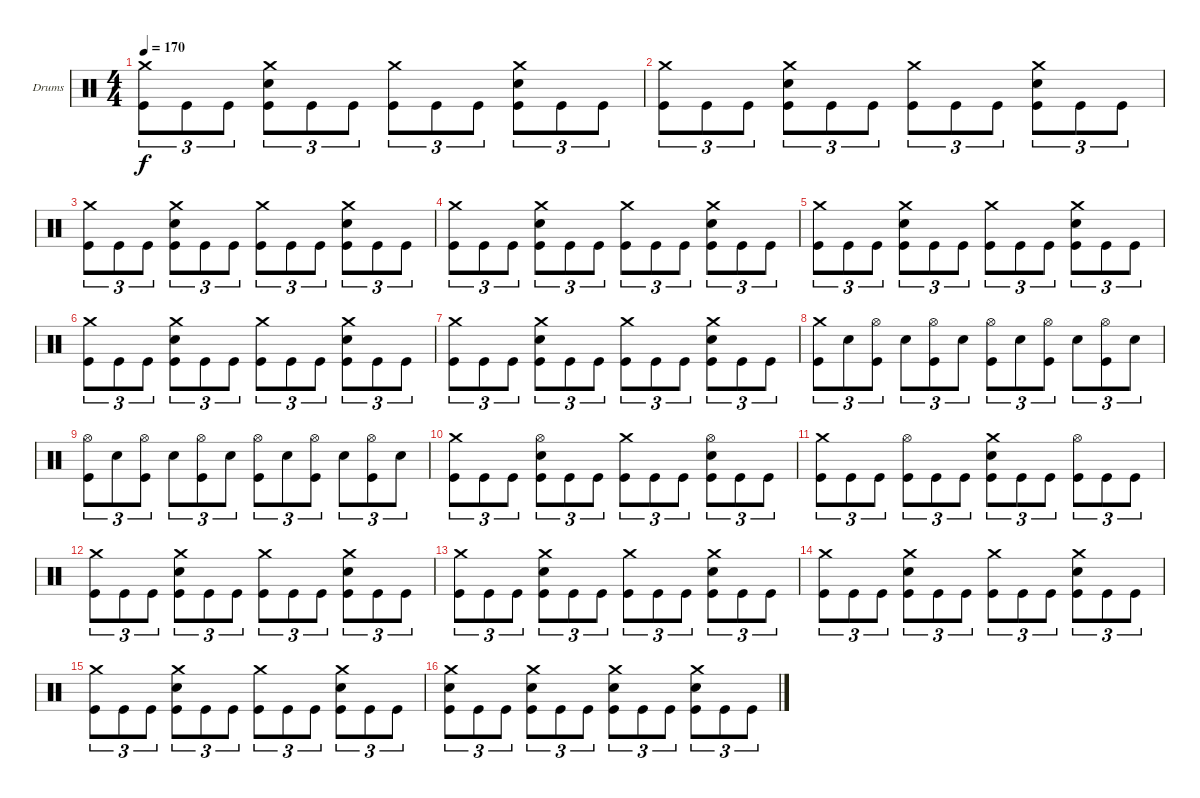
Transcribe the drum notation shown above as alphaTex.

\bracketExtendMode groupsimilarinstruments
\firstSystemTrackNameOrientation horizontal
\otherSystemsTrackNameOrientation horizontal
\track ("Drumkit" "Drums") {instrument percussion}
\staff {score}
\articulation defaults
\ts (4 4)
\tempo 170
\clef neutral
\ks c
("Crash medium (hit)" "Kick (hit)").8{tu (3 2) dy f} "Kick (hit)".8{tu (3 2)} "Kick (hit)".8{tu (3 2)} ("Crash medium (hit)" "Snare (hit) 2" "Kick (hit)").8{tu (3 2)} "Kick (hit)".8{tu (3 2)} "Kick (hit)".8{tu (3 2)} ("Crash medium (hit)" "Kick (hit)").8{tu (3 2)} "Kick (hit)".8{tu (3 2)} "Kick (hit)".8{tu (3 2)} ("Crash medium (hit)" "Snare (hit) 2" "Kick (hit)").8{tu (3 2)} "Kick (hit)".8{tu (3 2)} "Kick (hit)".8{tu (3 2)} |
("Crash medium (hit)" "Kick (hit)").8{tu (3 2)} "Kick (hit)".8{tu (3 2)} "Kick (hit)".8{tu (3 2)} ("Crash medium (hit)" "Snare (hit) 2" "Kick (hit)").8{tu (3 2)} "Kick (hit)".8{tu (3 2)} "Kick (hit)".8{tu (3 2)} ("Crash medium (hit)" "Kick (hit)").8{tu (3 2)} "Kick (hit)".8{tu (3 2)} "Kick (hit)".8{tu (3 2)} ("Crash medium (hit)" "Snare (hit) 2" "Kick (hit)").8{tu (3 2)} "Kick (hit)".8{tu (3 2)} "Kick (hit)".8{tu (3 2)} |
("Crash medium (hit)" "Kick (hit)").8{tu (3 2)} "Kick (hit)".8{tu (3 2)} "Kick (hit)".8{tu (3 2)} ("Crash medium (hit)" "Snare (hit) 2" "Kick (hit)").8{tu (3 2)} "Kick (hit)".8{tu (3 2)} "Kick (hit)".8{tu (3 2)} ("Crash medium (hit)" "Kick (hit)").8{tu (3 2)} "Kick (hit)".8{tu (3 2)} "Kick (hit)".8{tu (3 2)} ("Crash medium (hit)" "Snare (hit) 2" "Kick (hit)").8{tu (3 2)} "Kick (hit)".8{tu (3 2)} "Kick (hit)".8{tu (3 2)} |
("Crash medium (hit)" "Kick (hit)").8{tu (3 2)} "Kick (hit)".8{tu (3 2)} "Kick (hit)".8{tu (3 2)} ("Crash medium (hit)" "Snare (hit) 2" "Kick (hit)").8{tu (3 2)} "Kick (hit)".8{tu (3 2)} "Kick (hit)".8{tu (3 2)} ("Crash medium (hit)" "Kick (hit)").8{tu (3 2)} "Kick (hit)".8{tu (3 2)} "Kick (hit)".8{tu (3 2)} ("Crash medium (hit)" "Snare (hit) 2" "Kick (hit)").8{tu (3 2)} "Kick (hit)".8{tu (3 2)} "Kick (hit)".8{tu (3 2)} |
("Crash medium (hit)" "Kick (hit)").8{tu (3 2)} "Kick (hit)".8{tu (3 2)} "Kick (hit)".8{tu (3 2)} ("Crash medium (hit)" "Snare (hit) 2" "Kick (hit)").8{tu (3 2)} "Kick (hit)".8{tu (3 2)} "Kick (hit)".8{tu (3 2)} ("Crash medium (hit)" "Kick (hit)").8{tu (3 2)} "Kick (hit)".8{tu (3 2)} "Kick (hit)".8{tu (3 2)} ("Crash medium (hit)" "Snare (hit) 2" "Kick (hit)").8{tu (3 2)} "Kick (hit)".8{tu (3 2)} "Kick (hit)".8{tu (3 2)} |
("Crash medium (hit)" "Kick (hit)").8{tu (3 2)} "Kick (hit)".8{tu (3 2)} "Kick (hit)".8{tu (3 2)} ("Crash medium (hit)" "Snare (hit) 2" "Kick (hit)").8{tu (3 2)} "Kick (hit)".8{tu (3 2)} "Kick (hit)".8{tu (3 2)} ("Crash medium (hit)" "Kick (hit)").8{tu (3 2)} "Kick (hit)".8{tu (3 2)} "Kick (hit)".8{tu (3 2)} ("Crash medium (hit)" "Snare (hit) 2" "Kick (hit)").8{tu (3 2)} "Kick (hit)".8{tu (3 2)} "Kick (hit)".8{tu (3 2)} |
("Crash medium (hit)" "Kick (hit)").8{tu (3 2)} "Kick (hit)".8{tu (3 2)} "Kick (hit)".8{tu (3 2)} ("Crash medium (hit)" "Snare (hit) 2" "Kick (hit)").8{tu (3 2)} "Kick (hit)".8{tu (3 2)} "Kick (hit)".8{tu (3 2)} ("Crash medium (hit)" "Kick (hit)").8{tu (3 2)} "Kick (hit)".8{tu (3 2)} "Kick (hit)".8{tu (3 2)} ("Crash medium (hit)" "Snare (hit) 2" "Kick (hit)").8{tu (3 2)} "Kick (hit)".8{tu (3 2)} "Kick (hit)".8{tu (3 2)} |
("Crash medium (hit)" "Kick (hit)").8{tu (3 2)} "Snare (hit) 2".8{tu (3 2)} ("Hi-Hat (open)" "Kick (hit)").8{tu (3 2)} "Snare (hit) 2".8{tu (3 2)} ("Hi-Hat (open)" "Kick (hit)").8{tu (3 2)} "Snare (hit) 2".8{tu (3 2)} ("Hi-Hat (open)" "Kick (hit)").8{tu (3 2)} "Snare (hit) 2".8{tu (3 2)} ("Hi-Hat (open)" "Kick (hit)").8{tu (3 2)} "Snare (hit) 2".8{tu (3 2)} ("Hi-Hat (open)" "Kick (hit)").8{tu (3 2)} "Snare (hit) 2".8{tu (3 2)} |
("Hi-Hat (open)" "Kick (hit)").8{tu (3 2)} "Snare (hit) 2".8{tu (3 2)} ("Hi-Hat (open)" "Kick (hit)").8{tu (3 2)} "Snare (hit) 2".8{tu (3 2)} ("Hi-Hat (open)" "Kick (hit)").8{tu (3 2)} "Snare (hit) 2".8{tu (3 2)} ("Hi-Hat (open)" "Kick (hit)").8{tu (3 2)} "Snare (hit) 2".8{tu (3 2)} ("Hi-Hat (open)" "Kick (hit)").8{tu (3 2)} "Snare (hit) 2".8{tu (3 2)} ("Hi-Hat (open)" "Kick (hit)").8{tu (3 2)} "Snare (hit) 2".8{tu (3 2)} |
("Crash medium (hit)" "Kick (hit)").8{tu (3 2)} "Kick (hit)".8{tu (3 2)} "Kick (hit)".8{tu (3 2)} ("Hi-Hat (open)" "Snare (hit) 2" "Kick (hit)").8{tu (3 2)} "Kick (hit)".8{tu (3 2)} "Kick (hit)".8{tu (3 2)} ("Crash medium (hit)" "Kick (hit)").8{tu (3 2)} "Kick (hit)".8{tu (3 2)} "Kick (hit)".8{tu (3 2)} ("Hi-Hat (open)" "Snare (hit) 2" "Kick (hit)").8{tu (3 2)} "Kick (hit)".8{tu (3 2)} "Kick (hit)".8{tu (3 2)} |
("Crash medium (hit)" "Kick (hit)").8{tu (3 2)} "Kick (hit)".8{tu (3 2)} "Kick (hit)".8{tu (3 2)} ("Hi-Hat (open)" "Kick (hit)").8{tu (3 2)} "Kick (hit)".8{tu (3 2)} "Kick (hit)".8{tu (3 2)} ("Crash medium (hit)" "Snare (hit) 2" "Kick (hit)").8{tu (3 2)} "Kick (hit)".8{tu (3 2)} "Kick (hit)".8{tu (3 2)} ("Hi-Hat (open)" "Kick (hit)").8{tu (3 2)} "Kick (hit)".8{tu (3 2)} "Kick (hit)".8{tu (3 2)} |
("Crash medium (hit)" "Kick (hit)").8{tu (3 2)} "Kick (hit)".8{tu (3 2)} "Kick (hit)".8{tu (3 2)} ("Crash medium (hit)" "Snare (hit) 2" "Kick (hit)").8{tu (3 2)} "Kick (hit)".8{tu (3 2)} "Kick (hit)".8{tu (3 2)} ("Crash medium (hit)" "Kick (hit)").8{tu (3 2)} "Kick (hit)".8{tu (3 2)} "Kick (hit)".8{tu (3 2)} ("Crash medium (hit)" "Snare (hit) 2" "Kick (hit)").8{tu (3 2)} "Kick (hit)".8{tu (3 2)} "Kick (hit)".8{tu (3 2)} |
("Crash medium (hit)" "Kick (hit)").8{tu (3 2)} "Kick (hit)".8{tu (3 2)} "Kick (hit)".8{tu (3 2)} ("Crash medium (hit)" "Snare (hit) 2" "Kick (hit)").8{tu (3 2)} "Kick (hit)".8{tu (3 2)} "Kick (hit)".8{tu (3 2)} ("Crash medium (hit)" "Kick (hit)").8{tu (3 2)} "Kick (hit)".8{tu (3 2)} "Kick (hit)".8{tu (3 2)} ("Crash medium (hit)" "Snare (hit) 2" "Kick (hit)").8{tu (3 2)} "Kick (hit)".8{tu (3 2)} "Kick (hit)".8{tu (3 2)} |
("Crash medium (hit)" "Kick (hit)").8{tu (3 2)} "Kick (hit)".8{tu (3 2)} "Kick (hit)".8{tu (3 2)} ("Crash medium (hit)" "Snare (hit) 2" "Kick (hit)").8{tu (3 2)} "Kick (hit)".8{tu (3 2)} "Kick (hit)".8{tu (3 2)} ("Crash medium (hit)" "Kick (hit)").8{tu (3 2)} "Kick (hit)".8{tu (3 2)} "Kick (hit)".8{tu (3 2)} ("Crash medium (hit)" "Snare (hit) 2" "Kick (hit)").8{tu (3 2)} "Kick (hit)".8{tu (3 2)} "Kick (hit)".8{tu (3 2)} |
("Crash medium (hit)" "Kick (hit)").8{tu (3 2)} "Kick (hit)".8{tu (3 2)} "Kick (hit)".8{tu (3 2)} ("Crash medium (hit)" "Snare (hit) 2" "Kick (hit)").8{tu (3 2)} "Kick (hit)".8{tu (3 2)} "Kick (hit)".8{tu (3 2)} ("Crash medium (hit)" "Kick (hit)").8{tu (3 2)} "Kick (hit)".8{tu (3 2)} "Kick (hit)".8{tu (3 2)} ("Crash medium (hit)" "Snare (hit) 2" "Kick (hit)").8{tu (3 2)} "Kick (hit)".8{tu (3 2)} "Kick (hit)".8{tu (3 2)} |
("Crash medium (hit)" "Snare (hit) 2" "Kick (hit)").8{tu (3 2)} "Kick (hit)".8{tu (3 2)} "Kick (hit)".8{tu (3 2)} ("Crash medium (hit)" "Snare (hit) 2" "Kick (hit)").8{tu (3 2)} "Kick (hit)".8{tu (3 2)} "Kick (hit)".8{tu (3 2)} ("Crash medium (hit)" "Snare (hit) 2" "Kick (hit)").8{tu (3 2)} "Kick (hit)".8{tu (3 2)} "Kick (hit)".8{tu (3 2)} ("Crash medium (hit)" "Snare (hit) 2" "Kick (hit)").8{tu (3 2)} "Kick (hit)".8{tu (3 2)} "Kick (hit)".8{tu (3 2)}
